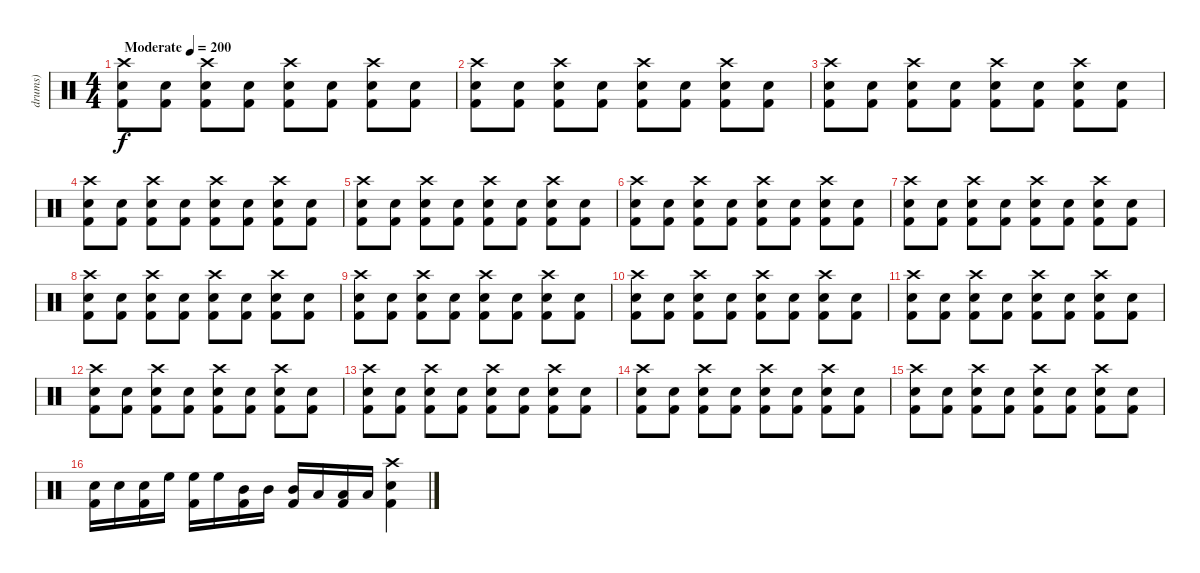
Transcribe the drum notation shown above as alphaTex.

\track ("drums)" "drums)") {instrument percussion}
\staff {score}
\articulation defaults
\ts (4 4)
\tempo (200 "Moderate")
\clef neutral
\ks c
("Crash high (hit)" "Electric Snare (hit)" "Kick (hit) 2").8{dy f} ("Electric Snare (hit)" "Kick (hit) 2").8 ("Crash high (hit)" "Electric Snare (hit)" "Kick (hit) 2").8 ("Electric Snare (hit)" "Kick (hit) 2").8 ("Crash high (hit)" "Electric Snare (hit)" "Kick (hit) 2").8 ("Electric Snare (hit)" "Kick (hit) 2").8 ("Crash high (hit)" "Electric Snare (hit)" "Kick (hit) 2").8 ("Electric Snare (hit)" "Kick (hit) 2").8 |
("Crash high (hit)" "Electric Snare (hit)" "Kick (hit) 2").8 ("Electric Snare (hit)" "Kick (hit) 2").8 ("Crash high (hit)" "Electric Snare (hit)" "Kick (hit) 2").8 ("Electric Snare (hit)" "Kick (hit) 2").8 ("Crash high (hit)" "Electric Snare (hit)" "Kick (hit) 2").8 ("Electric Snare (hit)" "Kick (hit) 2").8 ("Crash high (hit)" "Electric Snare (hit)" "Kick (hit) 2").8 ("Electric Snare (hit)" "Kick (hit) 2").8 |
("Crash high (hit)" "Electric Snare (hit)" "Kick (hit) 2").8 ("Electric Snare (hit)" "Kick (hit) 2").8 ("Crash high (hit)" "Electric Snare (hit)" "Kick (hit) 2").8 ("Electric Snare (hit)" "Kick (hit) 2").8 ("Crash high (hit)" "Electric Snare (hit)" "Kick (hit) 2").8 ("Electric Snare (hit)" "Kick (hit) 2").8 ("Crash high (hit)" "Electric Snare (hit)" "Kick (hit) 2").8 ("Electric Snare (hit)" "Kick (hit) 2").8 |
("Crash high (hit)" "Electric Snare (hit)" "Kick (hit) 2").8 ("Electric Snare (hit)" "Kick (hit) 2").8 ("Crash high (hit)" "Electric Snare (hit)" "Kick (hit) 2").8 ("Electric Snare (hit)" "Kick (hit) 2").8 ("Crash high (hit)" "Electric Snare (hit)" "Kick (hit) 2").8 ("Electric Snare (hit)" "Kick (hit) 2").8 ("Crash high (hit)" "Electric Snare (hit)" "Kick (hit) 2").8 ("Electric Snare (hit)" "Kick (hit) 2").8 |
("Crash high (hit)" "Electric Snare (hit)" "Kick (hit) 2").8 ("Electric Snare (hit)" "Kick (hit) 2").8 ("Crash high (hit)" "Electric Snare (hit)" "Kick (hit) 2").8 ("Electric Snare (hit)" "Kick (hit) 2").8 ("Crash high (hit)" "Electric Snare (hit)" "Kick (hit) 2").8 ("Electric Snare (hit)" "Kick (hit) 2").8 ("Crash high (hit)" "Electric Snare (hit)" "Kick (hit) 2").8 ("Electric Snare (hit)" "Kick (hit) 2").8 |
("Crash high (hit)" "Electric Snare (hit)" "Kick (hit) 2").8 ("Electric Snare (hit)" "Kick (hit) 2").8 ("Crash high (hit)" "Electric Snare (hit)" "Kick (hit) 2").8 ("Electric Snare (hit)" "Kick (hit) 2").8 ("Crash high (hit)" "Electric Snare (hit)" "Kick (hit) 2").8 ("Electric Snare (hit)" "Kick (hit) 2").8 ("Crash high (hit)" "Electric Snare (hit)" "Kick (hit) 2").8 ("Electric Snare (hit)" "Kick (hit) 2").8 |
("Crash high (hit)" "Electric Snare (hit)" "Kick (hit) 2").8 ("Electric Snare (hit)" "Kick (hit) 2").8 ("Crash high (hit)" "Electric Snare (hit)" "Kick (hit) 2").8 ("Electric Snare (hit)" "Kick (hit) 2").8 ("Crash high (hit)" "Electric Snare (hit)" "Kick (hit) 2").8 ("Electric Snare (hit)" "Kick (hit) 2").8 ("Crash high (hit)" "Electric Snare (hit)" "Kick (hit) 2").8 ("Electric Snare (hit)" "Kick (hit) 2").8 |
("Crash high (hit)" "Electric Snare (hit)" "Kick (hit) 2").8 ("Electric Snare (hit)" "Kick (hit) 2").8 ("Crash high (hit)" "Electric Snare (hit)" "Kick (hit) 2").8 ("Electric Snare (hit)" "Kick (hit) 2").8 ("Crash high (hit)" "Electric Snare (hit)" "Kick (hit) 2").8 ("Electric Snare (hit)" "Kick (hit) 2").8 ("Crash high (hit)" "Electric Snare (hit)" "Kick (hit) 2").8 ("Electric Snare (hit)" "Kick (hit) 2").8 |
("Crash high (hit)" "Electric Snare (hit)" "Kick (hit) 2").8 ("Electric Snare (hit)" "Kick (hit) 2").8 ("Crash high (hit)" "Electric Snare (hit)" "Kick (hit) 2").8 ("Electric Snare (hit)" "Kick (hit) 2").8 ("Crash high (hit)" "Electric Snare (hit)" "Kick (hit) 2").8 ("Electric Snare (hit)" "Kick (hit) 2").8 ("Crash high (hit)" "Electric Snare (hit)" "Kick (hit) 2").8 ("Electric Snare (hit)" "Kick (hit) 2").8 |
("Crash high (hit)" "Electric Snare (hit)" "Kick (hit) 2").8 ("Electric Snare (hit)" "Kick (hit) 2").8 ("Crash high (hit)" "Electric Snare (hit)" "Kick (hit) 2").8 ("Electric Snare (hit)" "Kick (hit) 2").8 ("Crash high (hit)" "Electric Snare (hit)" "Kick (hit) 2").8 ("Electric Snare (hit)" "Kick (hit) 2").8 ("Crash high (hit)" "Electric Snare (hit)" "Kick (hit) 2").8 ("Electric Snare (hit)" "Kick (hit) 2").8 |
("Crash high (hit)" "Electric Snare (hit)" "Kick (hit) 2").8 ("Electric Snare (hit)" "Kick (hit) 2").8 ("Crash high (hit)" "Electric Snare (hit)" "Kick (hit) 2").8 ("Electric Snare (hit)" "Kick (hit) 2").8 ("Crash high (hit)" "Electric Snare (hit)" "Kick (hit) 2").8 ("Electric Snare (hit)" "Kick (hit) 2").8 ("Crash high (hit)" "Electric Snare (hit)" "Kick (hit) 2").8 ("Electric Snare (hit)" "Kick (hit) 2").8 |
("Crash high (hit)" "Electric Snare (hit)" "Kick (hit) 2").8 ("Electric Snare (hit)" "Kick (hit) 2").8 ("Crash high (hit)" "Electric Snare (hit)" "Kick (hit) 2").8 ("Electric Snare (hit)" "Kick (hit) 2").8 ("Crash high (hit)" "Electric Snare (hit)" "Kick (hit) 2").8 ("Electric Snare (hit)" "Kick (hit) 2").8 ("Crash high (hit)" "Electric Snare (hit)" "Kick (hit) 2").8 ("Electric Snare (hit)" "Kick (hit) 2").8 |
("Crash high (hit)" "Electric Snare (hit)" "Kick (hit) 2").8 ("Electric Snare (hit)" "Kick (hit) 2").8 ("Crash high (hit)" "Electric Snare (hit)" "Kick (hit) 2").8 ("Electric Snare (hit)" "Kick (hit) 2").8 ("Crash high (hit)" "Electric Snare (hit)" "Kick (hit) 2").8 ("Electric Snare (hit)" "Kick (hit) 2").8 ("Crash high (hit)" "Electric Snare (hit)" "Kick (hit) 2").8 ("Electric Snare (hit)" "Kick (hit) 2").8 |
("Crash high (hit)" "Electric Snare (hit)" "Kick (hit) 2").8 ("Electric Snare (hit)" "Kick (hit) 2").8 ("Crash high (hit)" "Electric Snare (hit)" "Kick (hit) 2").8 ("Electric Snare (hit)" "Kick (hit) 2").8 ("Crash high (hit)" "Electric Snare (hit)" "Kick (hit) 2").8 ("Electric Snare (hit)" "Kick (hit) 2").8 ("Crash high (hit)" "Electric Snare (hit)" "Kick (hit) 2").8 ("Electric Snare (hit)" "Kick (hit) 2").8 |
("Crash high (hit)" "Electric Snare (hit)" "Kick (hit) 2").8 ("Electric Snare (hit)" "Kick (hit) 2").8 ("Crash high (hit)" "Electric Snare (hit)" "Kick (hit) 2").8 ("Electric Snare (hit)" "Kick (hit) 2").8 ("Crash high (hit)" "Electric Snare (hit)" "Kick (hit) 2").8 ("Electric Snare (hit)" "Kick (hit) 2").8 ("Crash high (hit)" "Electric Snare (hit)" "Kick (hit) 2").8 ("Electric Snare (hit)" "Kick (hit) 2").8 |
("Electric Snare (hit)" "Kick (hit) 2").16 "Electric Snare (hit)".16 ("Electric Snare (hit)" "Kick (hit) 2").16 "High Floor Tom (hit)".16 ("High Floor Tom (hit)" "Kick (hit) 2").16 "High Floor Tom (hit)".16 ("Mid Tom (hit)" "Kick (hit) 2").16 "Mid Tom (hit)".16 ("Mid Tom (hit)" "Kick (hit) 2").16 "Low Floor Tom (hit)".16 ("Low Floor Tom (hit)" "Kick (hit) 2").16 "Low Floor Tom (hit)".16 ("Crash high (hit)" "Electric Snare (hit)" "Kick (hit) 2").4
